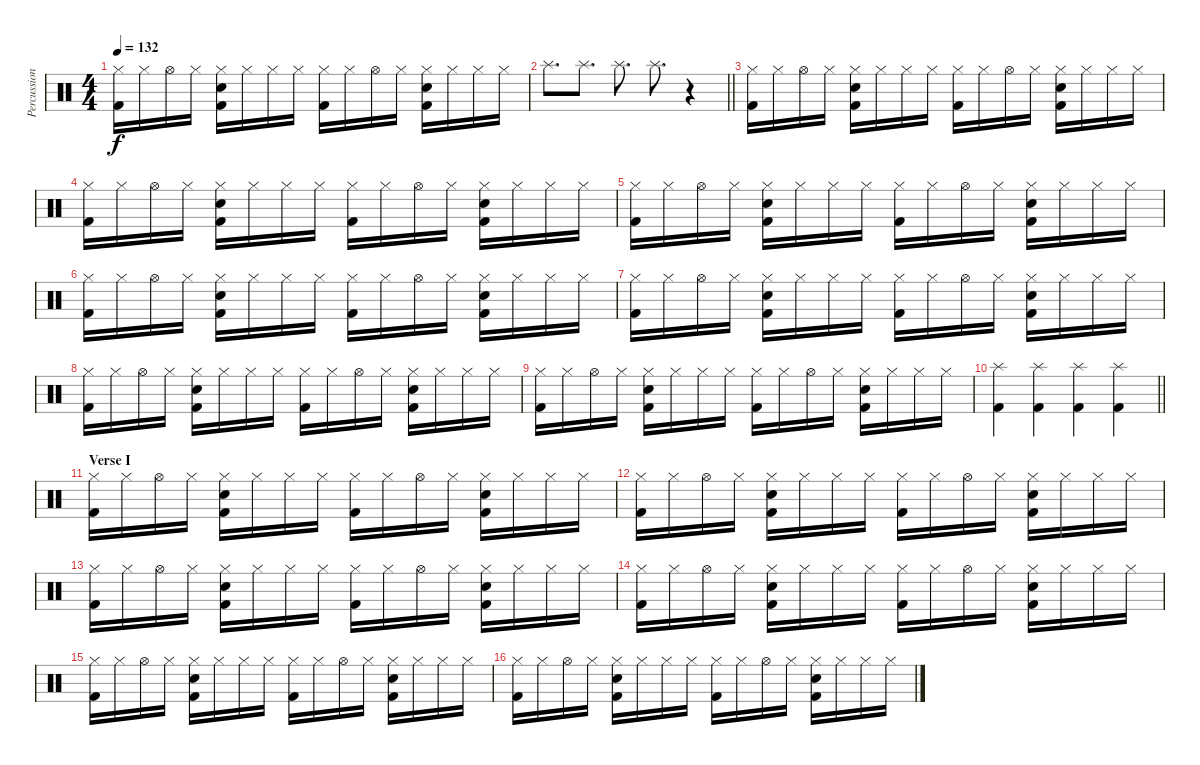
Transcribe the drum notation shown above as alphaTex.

\track ("Percussion I" "Percussion") {instrument percussion}
\staff {score}
\articulation defaults
\ts (4 4)
\tempo 132
\clef neutral
\ks c
("Hi-Hat (closed)" "Kick (hit) 2").16{dy f} "Hi-Hat (closed)".16 "Hi-Hat (open)".16 "Hi-Hat (closed)".16 ("Hi-Hat (closed)" "Hand Clap (hit)" "Kick (hit) 2").16 "Hi-Hat (closed)".16 "Hi-Hat (closed)".16 "Hi-Hat (closed)".16 ("Hi-Hat (closed)" "Kick (hit) 2").16 "Hi-Hat (closed)".16 "Hi-Hat (open)".16 "Hi-Hat (closed)".16 ("Hi-Hat (closed)" "Hand Clap (hit)" "Kick (hit) 2").16 "Hi-Hat (closed)".16 "Hi-Hat (closed)".16 "Hi-Hat (closed)".16 |
\barLineRight lightlight "Splash (hit)".8{d} "Splash (hit)".8{d} "Splash (hit)".8{d} "Splash (hit)".8{d}
r.4 |
\section ("" "")
("Hi-Hat (closed)" "Kick (hit) 2").16 "Hi-Hat (closed)".16 "Hi-Hat (open)".16 "Hi-Hat (closed)".16 ("Hi-Hat (closed)" "Hand Clap (hit)" "Kick (hit) 2").16 "Hi-Hat (closed)".16 "Hi-Hat (closed)".16 "Hi-Hat (closed)".16 ("Hi-Hat (closed)" "Kick (hit) 2").16 "Hi-Hat (closed)".16 "Hi-Hat (open)".16 "Hi-Hat (closed)".16 ("Hi-Hat (closed)" "Hand Clap (hit)" "Kick (hit) 2").16 "Hi-Hat (closed)".16 "Hi-Hat (closed)".16 "Hi-Hat (closed)".16 |
("Hi-Hat (closed)" "Kick (hit) 2").16 "Hi-Hat (closed)".16 "Hi-Hat (open)".16 "Hi-Hat (closed)".16 ("Hi-Hat (closed)" "Hand Clap (hit)" "Kick (hit) 2").16 "Hi-Hat (closed)".16 "Hi-Hat (closed)".16 "Hi-Hat (closed)".16 ("Hi-Hat (closed)" "Kick (hit) 2").16 "Hi-Hat (closed)".16 "Hi-Hat (open)".16 "Hi-Hat (closed)".16 ("Hi-Hat (closed)" "Hand Clap (hit)" "Kick (hit) 2").16 "Hi-Hat (closed)".16 "Hi-Hat (closed)".16 "Hi-Hat (closed)".16 |
("Hi-Hat (closed)" "Kick (hit) 2").16 "Hi-Hat (closed)".16 "Hi-Hat (open)".16 "Hi-Hat (closed)".16 ("Hi-Hat (closed)" "Hand Clap (hit)" "Kick (hit) 2").16 "Hi-Hat (closed)".16 "Hi-Hat (closed)".16 "Hi-Hat (closed)".16 ("Hi-Hat (closed)" "Kick (hit) 2").16 "Hi-Hat (closed)".16 "Hi-Hat (open)".16 "Hi-Hat (closed)".16 ("Hi-Hat (closed)" "Hand Clap (hit)" "Kick (hit) 2").16 "Hi-Hat (closed)".16 "Hi-Hat (closed)".16 "Hi-Hat (closed)".16 |
("Hi-Hat (closed)" "Kick (hit) 2").16 "Hi-Hat (closed)".16 "Hi-Hat (open)".16 "Hi-Hat (closed)".16 ("Hi-Hat (closed)" "Hand Clap (hit)" "Kick (hit) 2").16 "Hi-Hat (closed)".16 "Hi-Hat (closed)".16 "Hi-Hat (closed)".16 ("Hi-Hat (closed)" "Kick (hit) 2").16 "Hi-Hat (closed)".16 "Hi-Hat (open)".16 "Hi-Hat (closed)".16 ("Hi-Hat (closed)" "Hand Clap (hit)" "Kick (hit) 2").16 "Hi-Hat (closed)".16 "Hi-Hat (closed)".16 "Hi-Hat (closed)".16 |
("Hi-Hat (closed)" "Kick (hit) 2").16 "Hi-Hat (closed)".16 "Hi-Hat (open)".16 "Hi-Hat (closed)".16 ("Hi-Hat (closed)" "Hand Clap (hit)" "Kick (hit) 2").16 "Hi-Hat (closed)".16 "Hi-Hat (closed)".16 "Hi-Hat (closed)".16 ("Hi-Hat (closed)" "Kick (hit) 2").16 "Hi-Hat (closed)".16 "Hi-Hat (open)".16 "Hi-Hat (closed)".16 ("Hi-Hat (closed)" "Hand Clap (hit)" "Kick (hit) 2").16 "Hi-Hat (closed)".16 "Hi-Hat (closed)".16 "Hi-Hat (closed)".16 |
("Hi-Hat (closed)" "Kick (hit) 2").16 "Hi-Hat (closed)".16 "Hi-Hat (open)".16 "Hi-Hat (closed)".16 ("Hi-Hat (closed)" "Hand Clap (hit)" "Kick (hit) 2").16 "Hi-Hat (closed)".16 "Hi-Hat (closed)".16 "Hi-Hat (closed)".16 ("Hi-Hat (closed)" "Kick (hit) 2").16 "Hi-Hat (closed)".16 "Hi-Hat (open)".16 "Hi-Hat (closed)".16 ("Hi-Hat (closed)" "Hand Clap (hit)" "Kick (hit) 2").16 "Hi-Hat (closed)".16 "Hi-Hat (closed)".16 "Hi-Hat (closed)".16 |
("Hi-Hat (closed)" "Kick (hit) 2").16 "Hi-Hat (closed)".16 "Hi-Hat (open)".16 "Hi-Hat (closed)".16 ("Hi-Hat (closed)" "Hand Clap (hit)" "Kick (hit) 2").16 "Hi-Hat (closed)".16 "Hi-Hat (closed)".16 "Hi-Hat (closed)".16 ("Hi-Hat (closed)" "Kick (hit) 2").16 "Hi-Hat (closed)".16 "Hi-Hat (open)".16 "Hi-Hat (closed)".16 ("Hi-Hat (closed)" "Hand Clap (hit)" "Kick (hit) 2").16 "Hi-Hat (closed)".16 "Hi-Hat (closed)".16 "Hi-Hat (closed)".16 |
\barLineRight lightlight
("Splash (hit)" "Kick (hit) 2").4 ("Splash (hit)" "Kick (hit) 2").4 ("Splash (hit)" "Kick (hit) 2").4 ("Splash (hit)" "Kick (hit) 2").4 |
\section ("" "Verse I")
("Hi-Hat (closed)" "Kick (hit) 2").16 "Hi-Hat (closed)".16 "Hi-Hat (open)".16 "Hi-Hat (closed)".16 ("Hi-Hat (closed)" "Hand Clap (hit)" "Kick (hit) 2").16 "Hi-Hat (closed)".16 "Hi-Hat (closed)".16 "Hi-Hat (closed)".16 ("Hi-Hat (closed)" "Kick (hit) 2").16 "Hi-Hat (closed)".16 "Hi-Hat (open)".16 "Hi-Hat (closed)".16 ("Hi-Hat (closed)" "Hand Clap (hit)" "Kick (hit) 2").16 "Hi-Hat (closed)".16 "Hi-Hat (closed)".16 "Hi-Hat (closed)".16 |
("Hi-Hat (closed)" "Kick (hit) 2").16 "Hi-Hat (closed)".16 "Hi-Hat (open)".16 "Hi-Hat (closed)".16 ("Hi-Hat (closed)" "Hand Clap (hit)" "Kick (hit) 2").16 "Hi-Hat (closed)".16 "Hi-Hat (closed)".16 "Hi-Hat (closed)".16 ("Hi-Hat (closed)" "Kick (hit) 2").16 "Hi-Hat (closed)".16 "Hi-Hat (open)".16 "Hi-Hat (closed)".16 ("Hi-Hat (closed)" "Hand Clap (hit)" "Kick (hit) 2").16 "Hi-Hat (closed)".16 "Hi-Hat (closed)".16 "Hi-Hat (closed)".16 |
("Hi-Hat (closed)" "Kick (hit) 2").16 "Hi-Hat (closed)".16 "Hi-Hat (open)".16 "Hi-Hat (closed)".16 ("Hi-Hat (closed)" "Hand Clap (hit)" "Kick (hit) 2").16 "Hi-Hat (closed)".16 "Hi-Hat (closed)".16 "Hi-Hat (closed)".16 ("Hi-Hat (closed)" "Kick (hit) 2").16 "Hi-Hat (closed)".16 "Hi-Hat (open)".16 "Hi-Hat (closed)".16 ("Hi-Hat (closed)" "Hand Clap (hit)" "Kick (hit) 2").16 "Hi-Hat (closed)".16 "Hi-Hat (closed)".16 "Hi-Hat (closed)".16 |
("Hi-Hat (closed)" "Kick (hit) 2").16 "Hi-Hat (closed)".16 "Hi-Hat (open)".16 "Hi-Hat (closed)".16 ("Hi-Hat (closed)" "Hand Clap (hit)" "Kick (hit) 2").16 "Hi-Hat (closed)".16 "Hi-Hat (closed)".16 "Hi-Hat (closed)".16 ("Hi-Hat (closed)" "Kick (hit) 2").16 "Hi-Hat (closed)".16 "Hi-Hat (open)".16 "Hi-Hat (closed)".16 ("Hi-Hat (closed)" "Hand Clap (hit)" "Kick (hit) 2").16 "Hi-Hat (closed)".16 "Hi-Hat (closed)".16 "Hi-Hat (closed)".16 |
("Hi-Hat (closed)" "Kick (hit) 2").16 "Hi-Hat (closed)".16 "Hi-Hat (open)".16 "Hi-Hat (closed)".16 ("Hi-Hat (closed)" "Hand Clap (hit)" "Kick (hit) 2").16 "Hi-Hat (closed)".16 "Hi-Hat (closed)".16 "Hi-Hat (closed)".16 ("Hi-Hat (closed)" "Kick (hit) 2").16 "Hi-Hat (closed)".16 "Hi-Hat (open)".16 "Hi-Hat (closed)".16 ("Hi-Hat (closed)" "Hand Clap (hit)" "Kick (hit) 2").16 "Hi-Hat (closed)".16 "Hi-Hat (closed)".16 "Hi-Hat (closed)".16 |
("Hi-Hat (closed)" "Kick (hit) 2").16 "Hi-Hat (closed)".16 "Hi-Hat (open)".16 "Hi-Hat (closed)".16 ("Hi-Hat (closed)" "Hand Clap (hit)" "Kick (hit) 2").16 "Hi-Hat (closed)".16 "Hi-Hat (closed)".16 "Hi-Hat (closed)".16 ("Hi-Hat (closed)" "Kick (hit) 2").16 "Hi-Hat (closed)".16 "Hi-Hat (open)".16 "Hi-Hat (closed)".16 ("Hi-Hat (closed)" "Hand Clap (hit)" "Kick (hit) 2").16 "Hi-Hat (closed)".16 "Hi-Hat (closed)".16 "Hi-Hat (closed)".16
